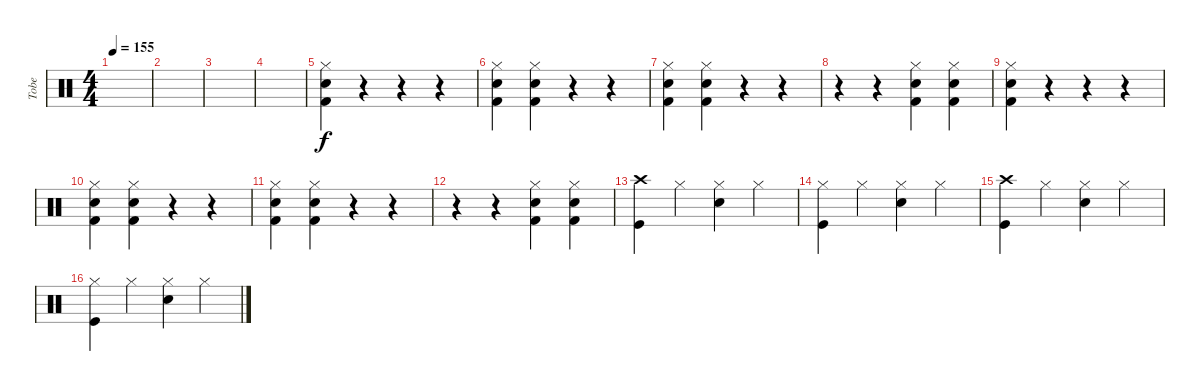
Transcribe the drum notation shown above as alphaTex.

\track ("Tobe" "Tobe") {instrument percussion}
\staff {score}
\articulation defaults
\ts (4 4)
\tempo 155
\clef neutral
\ks c
|
|
|
|
("Hi-Hat (closed)" "Electric Snare (hit)" "Kick (hit) 2").4 r.4 r.4 r.4 |
("Hi-Hat (closed)" "Electric Snare (hit)" "Kick (hit) 2").4 ("Hi-Hat (closed)" "Electric Snare (hit)" "Kick (hit) 2").4 r.4 r.4 |
("Hi-Hat (closed)" "Electric Snare (hit)" "Kick (hit) 2").4 ("Hi-Hat (closed)" "Electric Snare (hit)" "Kick (hit) 2").4 r.4 r.4 |
r.4 r.4 ("Hi-Hat (closed)" "Electric Snare (hit)" "Kick (hit) 2").4 ("Hi-Hat (closed)" "Electric Snare (hit)" "Kick (hit) 2").4 |
("Hi-Hat (closed)" "Electric Snare (hit)" "Kick (hit) 2").4 r.4 r.4 r.4 |
("Hi-Hat (closed)" "Electric Snare (hit)" "Kick (hit) 2").4 ("Hi-Hat (closed)" "Electric Snare (hit)" "Kick (hit) 2").4 r.4 r.4 |
("Hi-Hat (closed)" "Electric Snare (hit)" "Kick (hit) 2").4 ("Hi-Hat (closed)" "Electric Snare (hit)" "Kick (hit) 2").4 r.4 r.4 |
r.4 r.4 ("Hi-Hat (closed)" "Electric Snare (hit)" "Kick (hit) 2").4 ("Hi-Hat (closed)" "Electric Snare (hit)" "Kick (hit) 2").4 |
("Crash high (hit)" "Kick (hit)").4 "Hi-Hat (closed)".4 ("Hi-Hat (closed)" "Electric Snare (hit)").4 "Hi-Hat (closed)".4 |
("Hi-Hat (closed)" "Kick (hit)").4 "Hi-Hat (closed)".4 ("Hi-Hat (closed)" "Electric Snare (hit)").4 "Hi-Hat (closed)".4 |
("Crash high (hit)" "Kick (hit)").4 "Hi-Hat (closed)".4 ("Hi-Hat (closed)" "Electric Snare (hit)").4 "Hi-Hat (closed)".4 |
("Hi-Hat (closed)" "Kick (hit)").4 "Hi-Hat (closed)".4 ("Hi-Hat (closed)" "Electric Snare (hit)").4 "Hi-Hat (closed)".4
